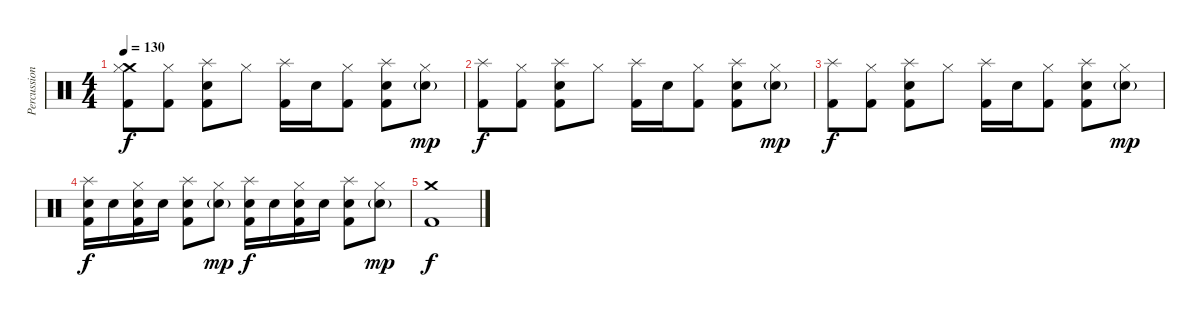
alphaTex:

\track ("Percussion" "Percussion") {instrument percussion}
\staff {score}
\articulation defaults
\ts (4 4)
\tempo 130
\clef neutral
\ks c
("Crash medium (hit)" "Hi-Hat (closed)" "Kick (hit) 2").8{dy f} ("Hi-Hat (closed)" "Kick (hit) 2").8 ("Splash (hit)" "Electric Snare (hit)" "Kick (hit) 2").8 "Hi-Hat (closed)".8 ("Splash (hit)" "Kick (hit) 2").16 "Electric Snare (hit)".16 ("Hi-Hat (closed)" "Kick (hit) 2").8 ("Splash (hit)" "Electric Snare (hit)" "Kick (hit) 2").8 ("Hi-Hat (closed)" "Electric Snare (hit)"{g}).8{dy mp} |
("Splash (hit)" "Kick (hit) 2").8{dy f} ("Hi-Hat (closed)" "Kick (hit) 2").8 ("Splash (hit)" "Electric Snare (hit)" "Kick (hit) 2").8 "Hi-Hat (closed)".8 ("Splash (hit)" "Kick (hit) 2").16 "Electric Snare (hit)".16 ("Hi-Hat (closed)" "Kick (hit) 2").8 ("Splash (hit)" "Electric Snare (hit)" "Kick (hit) 2").8 ("Hi-Hat (closed)" "Electric Snare (hit)"{g}).8{dy mp} |
("Splash (hit)" "Kick (hit) 2").8{dy f} ("Hi-Hat (closed)" "Kick (hit) 2").8 ("Splash (hit)" "Electric Snare (hit)" "Kick (hit) 2").8 "Hi-Hat (closed)".8 ("Splash (hit)" "Kick (hit) 2").16 "Electric Snare (hit)".16 ("Hi-Hat (closed)" "Kick (hit) 2").8 ("Splash (hit)" "Electric Snare (hit)" "Kick (hit) 2").8 ("Hi-Hat (closed)" "Electric Snare (hit)"{g}).8{dy mp} |
("Splash (hit)" "Electric Snare (hit)" "Kick (hit) 2").16{dy f} "Electric Snare (hit)".16 ("Hi-Hat (closed)" "Electric Snare (hit)" "Kick (hit) 2").16 "Electric Snare (hit)".16 ("Splash (hit)" "Electric Snare (hit)" "Kick (hit) 2").8 ("Hi-Hat (closed)" "Electric Snare (hit)"{g}).8{dy mp} ("Splash (hit)" "Electric Snare (hit)" "Kick (hit) 2").16{dy f} "Electric Snare (hit)".16 ("Hi-Hat (closed)" "Electric Snare (hit)" "Kick (hit) 2").16 "Electric Snare (hit)".16 ("Splash (hit)" "Electric Snare (hit)" "Kick (hit) 2").8 ("Hi-Hat (closed)" "Electric Snare (hit)"{g}).8{dy mp} |
("Crash medium (hit)" "Kick (hit) 2").1{dy f}
